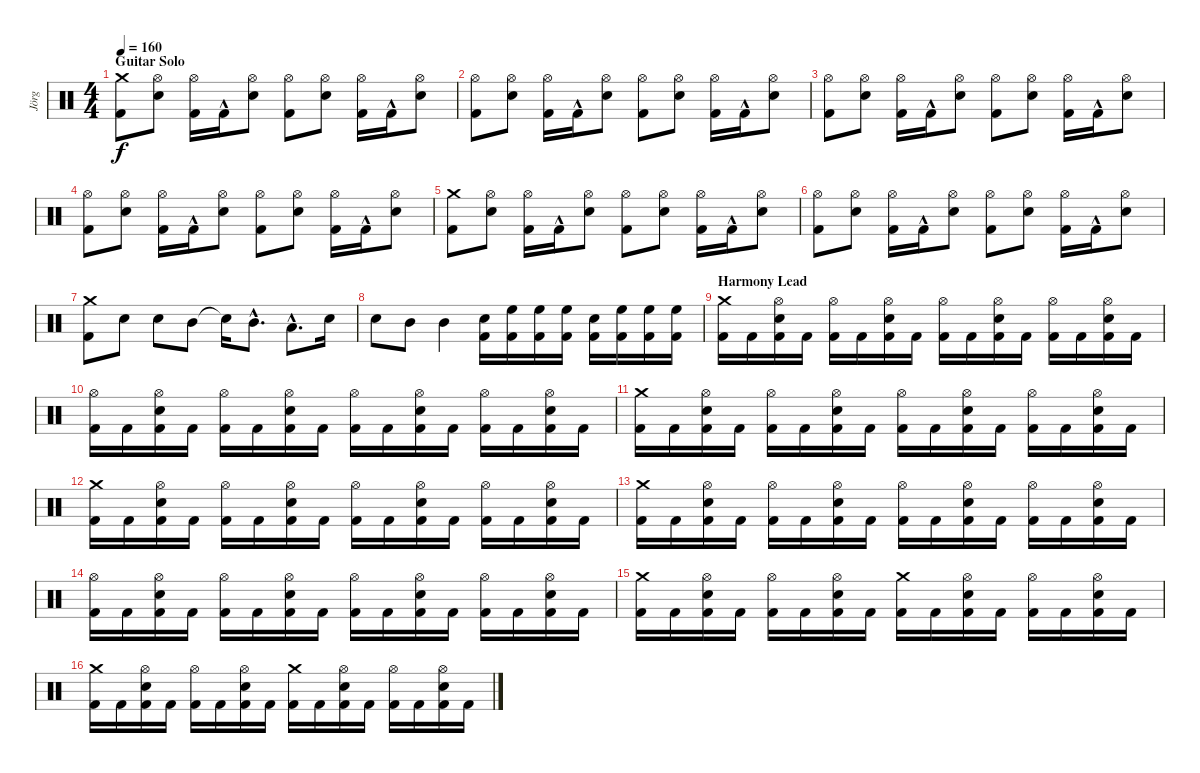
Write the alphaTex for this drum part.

\track ("Jörg" "Jörg") {instrument percussion}
\staff {score}
\articulation defaults
\ts (4 4)
\section ("" "Guitar Solo")
\tempo 160
\clef neutral
\ks c
("Crash medium (hit)" "Kick (hit) 2").8{dy f} ("Snare (hit) 2" "Hi-Hat (open)").8 ("Kick (hit) 2" "Hi-Hat (open)").16 "Kick (hit) 2"{hac}.16 ("Snare (hit) 2" "Hi-Hat (open)").8 ("Kick (hit) 2" "Hi-Hat (open)").8 ("Snare (hit) 2" "Hi-Hat (open)").8 ("Kick (hit) 2" "Hi-Hat (open)").16 "Kick (hit) 2"{hac}.16 ("Snare (hit) 2" "Hi-Hat (open)").8 |
("Kick (hit) 2" "Hi-Hat (open)").8 ("Snare (hit) 2" "Hi-Hat (open)").8 ("Kick (hit) 2" "Hi-Hat (open)").16 "Kick (hit) 2"{hac}.16 ("Snare (hit) 2" "Hi-Hat (open)").8 ("Kick (hit) 2" "Hi-Hat (open)").8 ("Snare (hit) 2" "Hi-Hat (open)").8 ("Kick (hit) 2" "Hi-Hat (open)").16 "Kick (hit) 2"{hac}.16 ("Snare (hit) 2" "Hi-Hat (open)").8 |
("Kick (hit) 2" "Hi-Hat (open)").8 ("Snare (hit) 2" "Hi-Hat (open)").8 ("Kick (hit) 2" "Hi-Hat (open)").16 "Kick (hit) 2"{hac}.16 ("Snare (hit) 2" "Hi-Hat (open)").8 ("Kick (hit) 2" "Hi-Hat (open)").8 ("Snare (hit) 2" "Hi-Hat (open)").8 ("Kick (hit) 2" "Hi-Hat (open)").16 "Kick (hit) 2"{hac}.16 ("Snare (hit) 2" "Hi-Hat (open)").8 |
("Kick (hit) 2" "Hi-Hat (open)").8 ("Snare (hit) 2" "Hi-Hat (open)").8 ("Kick (hit) 2" "Hi-Hat (open)").16 "Kick (hit) 2"{hac}.16 ("Snare (hit) 2" "Hi-Hat (open)").8 ("Kick (hit) 2" "Hi-Hat (open)").8 ("Snare (hit) 2" "Hi-Hat (open)").8 ("Kick (hit) 2" "Hi-Hat (open)").16 "Kick (hit) 2"{hac}.16 ("Snare (hit) 2" "Hi-Hat (open)").8 |
("Crash medium (hit)" "Kick (hit) 2").8 ("Snare (hit) 2" "Hi-Hat (open)").8 ("Kick (hit) 2" "Hi-Hat (open)").16 "Kick (hit) 2"{hac}.16 ("Snare (hit) 2" "Hi-Hat (open)").8 ("Kick (hit) 2" "Hi-Hat (open)").8 ("Snare (hit) 2" "Hi-Hat (open)").8 ("Kick (hit) 2" "Hi-Hat (open)").16 "Kick (hit) 2"{hac}.16 ("Snare (hit) 2" "Hi-Hat (open)").8 |
("Kick (hit) 2" "Hi-Hat (open)").8 ("Snare (hit) 2" "Hi-Hat (open)").8 ("Kick (hit) 2" "Hi-Hat (open)").16 "Kick (hit) 2"{hac}.16 ("Snare (hit) 2" "Hi-Hat (open)").8 ("Kick (hit) 2" "Hi-Hat (open)").8 ("Snare (hit) 2" "Hi-Hat (open)").8 ("Kick (hit) 2" "Hi-Hat (open)").16 "Kick (hit) 2"{hac}.16 ("Snare (hit) 2" "Hi-Hat (open)").8 |
("Kick (hit) 2" "Crash medium (hit)").8 "Snare (hit) 2".8 "Snare (hit) 2".8 "Mid Tom (hit)".8 "Snare (hit)"{t}.16 "Mid Tom (hit)"{hac}.8{d} "Low Tom (hit)"{hac}.8{d} "Snare (hit) 2".16 |
"Snare (hit) 2".8 "Mid Tom (hit)".8 "Mid Tom (hit)".4 ("Kick (hit) 2" "Snare (hit) 2").16 ("Kick (hit) 2" "High Floor Tom (hit)").16 ("Kick (hit) 2" "High Floor Tom (hit)").16 ("Kick (hit) 2" "High Floor Tom (hit)").16 ("Kick (hit) 2" "Snare (hit) 2").16 ("Kick (hit) 2" "High Floor Tom (hit)").16 ("Kick (hit) 2" "High Floor Tom (hit)").16 ("Kick (hit) 2" "High Floor Tom (hit)").16 |
\section ("" "Harmony Lead")
("Crash medium (hit)" "Kick (hit) 2").16 "Kick (hit) 2".16 ("Hi-Hat (open)" "Snare (hit) 2" "Kick (hit) 2").16 "Kick (hit) 2".16 ("Hi-Hat (open)" "Kick (hit) 2").16 "Kick (hit) 2".16 ("Hi-Hat (open)" "Snare (hit) 2" "Kick (hit) 2").16 "Kick (hit) 2".16 ("Hi-Hat (open)" "Kick (hit) 2").16 "Kick (hit) 2".16 ("Hi-Hat (open)" "Snare (hit) 2" "Kick (hit) 2").16 "Kick (hit) 2".16 ("Hi-Hat (open)" "Kick (hit) 2").16 "Kick (hit) 2".16 ("Hi-Hat (open)" "Snare (hit) 2" "Kick (hit) 2").16 "Kick (hit) 2".16 |
("Hi-Hat (open)" "Kick (hit) 2").16 "Kick (hit) 2".16 ("Hi-Hat (open)" "Snare (hit) 2" "Kick (hit) 2").16 "Kick (hit) 2".16 ("Hi-Hat (open)" "Kick (hit) 2").16 "Kick (hit) 2".16 ("Hi-Hat (open)" "Snare (hit) 2" "Kick (hit) 2").16 "Kick (hit) 2".16 ("Hi-Hat (open)" "Kick (hit) 2").16 "Kick (hit) 2".16 ("Hi-Hat (open)" "Snare (hit) 2" "Kick (hit) 2").16 "Kick (hit) 2".16 ("Hi-Hat (open)" "Kick (hit) 2").16 "Kick (hit) 2".16 ("Hi-Hat (open)" "Snare (hit) 2" "Kick (hit) 2").16 "Kick (hit) 2".16 |
("Crash medium (hit)" "Kick (hit) 2").16 "Kick (hit) 2".16 ("Hi-Hat (open)" "Snare (hit) 2" "Kick (hit) 2").16 "Kick (hit) 2".16 ("Hi-Hat (open)" "Kick (hit) 2").16 "Kick (hit) 2".16 ("Hi-Hat (open)" "Snare (hit) 2" "Kick (hit) 2").16 "Kick (hit) 2".16 ("Hi-Hat (open)" "Kick (hit) 2").16 "Kick (hit) 2".16 ("Hi-Hat (open)" "Snare (hit) 2" "Kick (hit) 2").16 "Kick (hit) 2".16 ("Hi-Hat (open)" "Kick (hit) 2").16 "Kick (hit) 2".16 ("Hi-Hat (open)" "Snare (hit) 2" "Kick (hit) 2").16 "Kick (hit) 2".16 |
("Crash medium (hit)" "Kick (hit) 2").16 "Kick (hit) 2".16 ("Hi-Hat (open)" "Snare (hit) 2" "Kick (hit) 2").16 "Kick (hit) 2".16 ("Hi-Hat (open)" "Kick (hit) 2").16 "Kick (hit) 2".16 ("Hi-Hat (open)" "Snare (hit) 2" "Kick (hit) 2").16 "Kick (hit) 2".16 ("Hi-Hat (open)" "Kick (hit) 2").16 "Kick (hit) 2".16 ("Hi-Hat (open)" "Snare (hit) 2" "Kick (hit) 2").16 "Kick (hit) 2".16 ("Hi-Hat (open)" "Kick (hit) 2").16 "Kick (hit) 2".16 ("Hi-Hat (open)" "Snare (hit) 2" "Kick (hit) 2").16 "Kick (hit) 2".16 |
("Crash medium (hit)" "Kick (hit) 2").16 "Kick (hit) 2".16 ("Hi-Hat (open)" "Snare (hit) 2" "Kick (hit) 2").16 "Kick (hit) 2".16 ("Hi-Hat (open)" "Kick (hit) 2").16 "Kick (hit) 2".16 ("Hi-Hat (open)" "Snare (hit) 2" "Kick (hit) 2").16 "Kick (hit) 2".16 ("Hi-Hat (open)" "Kick (hit) 2").16 "Kick (hit) 2".16 ("Hi-Hat (open)" "Snare (hit) 2" "Kick (hit) 2").16 "Kick (hit) 2".16 ("Hi-Hat (open)" "Kick (hit) 2").16 "Kick (hit) 2".16 ("Hi-Hat (open)" "Snare (hit) 2" "Kick (hit) 2").16 "Kick (hit) 2".16 |
("Hi-Hat (open)" "Kick (hit) 2").16 "Kick (hit) 2".16 ("Hi-Hat (open)" "Snare (hit) 2" "Kick (hit) 2").16 "Kick (hit) 2".16 ("Hi-Hat (open)" "Kick (hit) 2").16 "Kick (hit) 2".16 ("Hi-Hat (open)" "Snare (hit) 2" "Kick (hit) 2").16 "Kick (hit) 2".16 ("Hi-Hat (open)" "Kick (hit) 2").16 "Kick (hit) 2".16 ("Hi-Hat (open)" "Snare (hit) 2" "Kick (hit) 2").16 "Kick (hit) 2".16 ("Hi-Hat (open)" "Kick (hit) 2").16 "Kick (hit) 2".16 ("Hi-Hat (open)" "Snare (hit) 2" "Kick (hit) 2").16 "Kick (hit) 2".16 |
("Crash medium (hit)" "Kick (hit) 2").16 "Kick (hit) 2".16 ("Hi-Hat (open)" "Snare (hit) 2" "Kick (hit) 2").16 "Kick (hit) 2".16 ("Hi-Hat (open)" "Kick (hit) 2").16 "Kick (hit) 2".16 ("Hi-Hat (open)" "Snare (hit) 2" "Kick (hit) 2").16 "Kick (hit) 2".16 ("Crash medium (hit)" "Kick (hit) 2").16 "Kick (hit) 2".16 ("Hi-Hat (open)" "Snare (hit) 2" "Kick (hit) 2").16 "Kick (hit) 2".16 ("Hi-Hat (open)" "Kick (hit) 2").16 "Kick (hit) 2".16 ("Hi-Hat (open)" "Snare (hit) 2" "Kick (hit) 2").16 "Kick (hit) 2".16 |
("Crash medium (hit)" "Kick (hit) 2").16 "Kick (hit) 2".16 ("Hi-Hat (open)" "Snare (hit) 2" "Kick (hit) 2").16 "Kick (hit) 2".16 ("Hi-Hat (open)" "Kick (hit) 2").16 "Kick (hit) 2".16 ("Hi-Hat (open)" "Snare (hit) 2" "Kick (hit) 2").16 "Kick (hit) 2".16 ("Crash medium (hit)" "Kick (hit) 2").16 "Kick (hit) 2".16 ("Hi-Hat (open)" "Snare (hit) 2" "Kick (hit) 2").16 "Kick (hit) 2".16 ("Hi-Hat (open)" "Kick (hit) 2").16 "Kick (hit) 2".16 ("Hi-Hat (open)" "Snare (hit) 2" "Kick (hit) 2").16 "Kick (hit) 2".16
